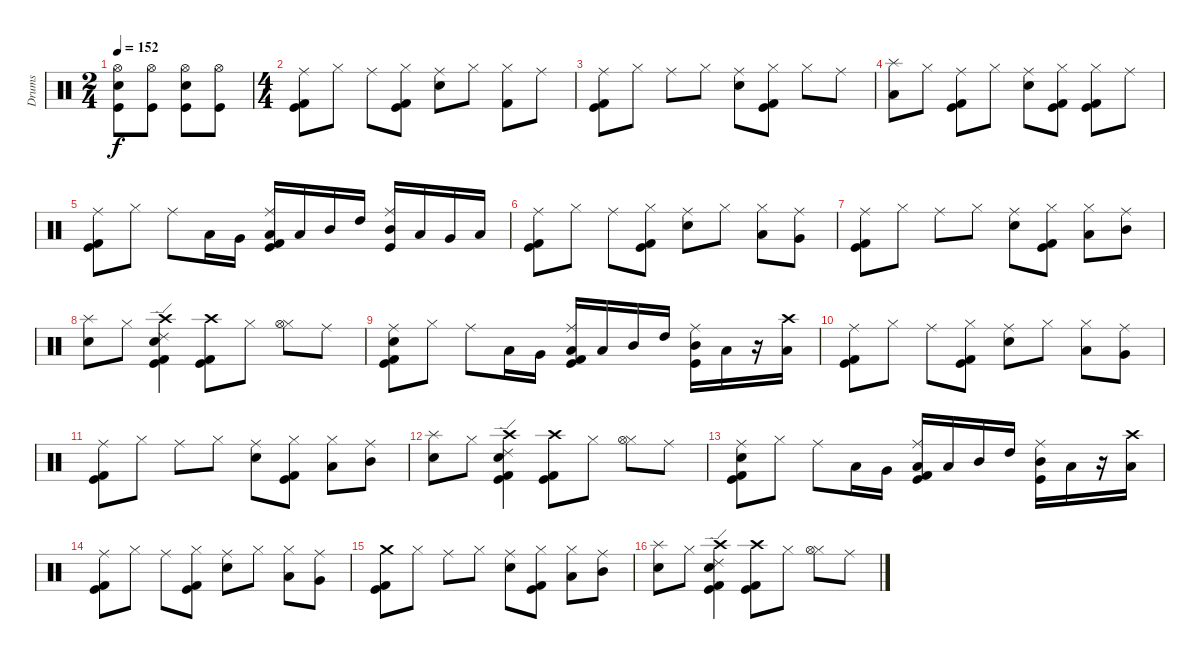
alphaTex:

\track ("Drums" "Drums") {instrument percussion}
\staff {score}
\articulation defaults
\ts (2 4)
\tempo 152
\clef neutral
\ks c
("Hi-Hat (open)" "Electric Snare (hit)" "Kick (hit)").8{dy f} ("Hi-Hat (open)" "Kick (hit)").8 ("Hi-Hat (open)" "Electric Snare (hit)" "Kick (hit)").8 ("Hi-Hat (open)" "Kick (hit)").8 |
\ts (4 4)
("Ride (middle)" "Kick (hit) 2" "Kick (hit)").8 "Hi-Hat (closed)".8 "Ride (middle)".8 ("Hi-Hat (closed)" "Kick (hit) 2" "Kick (hit)").8 ("Ride (middle)" "Electric Snare (hit)").8 "Hi-Hat (closed)".8 ("Hi-Hat (closed)" "Kick (hit) 2").8 "Ride (middle)".8 |
("Ride (middle)" "Kick (hit) 2" "Kick (hit)").8 "Hi-Hat (closed)".8 "Ride (middle)".8 "Hi-Hat (closed)".8 ("Ride (middle)" "Electric Snare (hit)").8 ("Hi-Hat (closed)" "Kick (hit) 2" "Kick (hit)").8 "Hi-Hat (closed)".8 "Ride (middle)".8 |
("Splash (hit)" "Low Tom (hit)").8 "Hi-Hat (closed)".8 ("Ride (middle)" "Kick (hit) 2" "Kick (hit)").8 "Hi-Hat (closed)".8 ("Ride (middle)" "Electric Snare (hit)").8 ("Hi-Hat (closed)" "Kick (hit) 2" "Kick (hit)").8 ("Hi-Hat (closed)" "Kick (hit) 2" "Kick (hit)").8 "Ride (middle)".8 |
("Ride (middle)" "Kick (hit) 2" "Kick (hit)").8 "Hi-Hat (closed)".8 "Ride (middle)".8 "Low Floor Tom (hit)".16 "Very Low Tom (hit)".16 ("Ride (middle)" "Low Tom (hit)" "Kick (hit) 2" "Kick (hit)").16 "Low Tom (hit)".16 "Mid Tom (hit)".16 "High Tom (hit)".16 ("Ride (middle)" "Mid Tom (hit)" "Kick (hit)").16 "Low Tom (hit)".16 "Very Low Tom (hit)".16 "Low Floor Tom (hit)".16 |
("Ride (middle)" "Kick (hit) 2" "Kick (hit)").8 "Hi-Hat (closed)".8 "Ride (middle)".8 ("Hi-Hat (closed)" "Kick (hit) 2" "Kick (hit)").8 ("Ride (middle)" "Electric Snare (hit)").8 "Hi-Hat (closed)".8 ("Hi-Hat (closed)" "Low Floor Tom (hit)").8 ("Ride (middle)" "Very Low Tom (hit)").8 |
("Ride (middle)" "Kick (hit) 2" "Kick (hit)").8 "Hi-Hat (closed)".8 "Ride (middle)".8 "Hi-Hat (closed)".8 ("Ride (middle)" "Electric Snare (hit)").8 ("Hi-Hat (closed)" "Kick (hit) 2" "Kick (hit)").8 ("Hi-Hat (closed)" "Low Tom (hit)").8 ("Ride (middle)" "Mid Tom (hit)").8 |
("Splash (hit)" "Electric Snare (hit)").8 "Hi-Hat (closed)".8 ("Ride (edge) 2" "Crash high (hit)" "Electric Snare (hit)" "Kick (hit) 2" "Kick (hit)").4 ("Crash high (hit)" "Kick (hit) 2" "Kick (hit)").8 "Hi-Hat (closed)".8 ("Hi-Hat (closed)" "Hi-Hat (open)").8 "Ride (middle)".8 |
("Ride (middle)" "Electric Snare (hit)" "Kick (hit) 2" "Kick (hit)").8 "Hi-Hat (closed)".8 "Ride (middle)".8 "Low Floor Tom (hit)".16 "Very Low Tom (hit)".16 ("Ride (middle)" "Low Tom (hit)" "Kick (hit) 2" "Kick (hit)").16 "Low Tom (hit)".16 "Mid Tom (hit)".16 "High Tom (hit)".16 ("Ride (middle)" "Mid Tom (hit)" "Kick (hit)").16 "Low Tom (hit)".16 r.16 ("Crash high (hit)" "Low Floor Tom (hit)").16 |
("Ride (middle)" "Kick (hit) 2" "Kick (hit)").8 "Hi-Hat (closed)".8 "Ride (middle)".8 ("Hi-Hat (closed)" "Kick (hit) 2" "Kick (hit)").8 ("Ride (middle)" "Electric Snare (hit)").8 "Hi-Hat (closed)".8 ("Hi-Hat (closed)" "Low Floor Tom (hit)").8 ("Ride (middle)" "Very Low Tom (hit)").8 |
("Ride (middle)" "Kick (hit) 2" "Kick (hit)").8 "Hi-Hat (closed)".8 "Ride (middle)".8 "Hi-Hat (closed)".8 ("Ride (middle)" "Electric Snare (hit)").8 ("Hi-Hat (closed)" "Kick (hit) 2" "Kick (hit)").8 ("Hi-Hat (closed)" "Low Tom (hit)").8 ("Ride (middle)" "Mid Tom (hit)").8 |
("Splash (hit)" "Electric Snare (hit)").8 "Hi-Hat (closed)".8 ("Ride (edge) 2" "Crash high (hit)" "Electric Snare (hit)" "Kick (hit) 2" "Kick (hit)").4 ("Crash high (hit)" "Kick (hit) 2" "Kick (hit)").8 "Hi-Hat (closed)".8 ("Hi-Hat (closed)" "Hi-Hat (open)").8 "Ride (middle)".8 |
("Ride (middle)" "Electric Snare (hit)" "Kick (hit) 2" "Kick (hit)").8 "Hi-Hat (closed)".8 "Ride (middle)".8 "Low Floor Tom (hit)".16 "Very Low Tom (hit)".16 ("Ride (middle)" "Low Tom (hit)" "Kick (hit) 2" "Kick (hit)").16 "Low Tom (hit)".16 "Mid Tom (hit)".16 "High Tom (hit)".16 ("Ride (middle)" "Mid Tom (hit)" "Kick (hit)").16 "Low Tom (hit)".16 r.16 ("Crash high (hit)" "Low Floor Tom (hit)").16 |
("Ride (middle)" "Kick (hit) 2" "Kick (hit)").8 "Hi-Hat (closed)".8 "Ride (middle)".8 ("Hi-Hat (closed)" "Kick (hit) 2" "Kick (hit)").8 ("Ride (middle)" "Electric Snare (hit)").8 "Hi-Hat (closed)".8 ("Hi-Hat (closed)" "Low Floor Tom (hit)").8 ("Ride (middle)" "Very Low Tom (hit)").8 |
("Crash medium (hit)" "Kick (hit) 2" "Kick (hit)").8 "Hi-Hat (closed)".8 "Ride (middle)".8 "Hi-Hat (closed)".8 ("Ride (middle)" "Electric Snare (hit)").8 ("Hi-Hat (closed)" "Kick (hit) 2" "Kick (hit)").8 ("Hi-Hat (closed)" "Low Tom (hit)").8 ("Ride (middle)" "Mid Tom (hit)").8 |
("Splash (hit)" "Electric Snare (hit)").8 "Hi-Hat (closed)".8 ("Ride (edge) 2" "Crash high (hit)" "Electric Snare (hit)" "Kick (hit) 2" "Kick (hit)").4 ("Crash high (hit)" "Kick (hit) 2" "Kick (hit)").8 "Hi-Hat (closed)".8 ("Hi-Hat (closed)" "Hi-Hat (open)").8 "Ride (middle)".8
